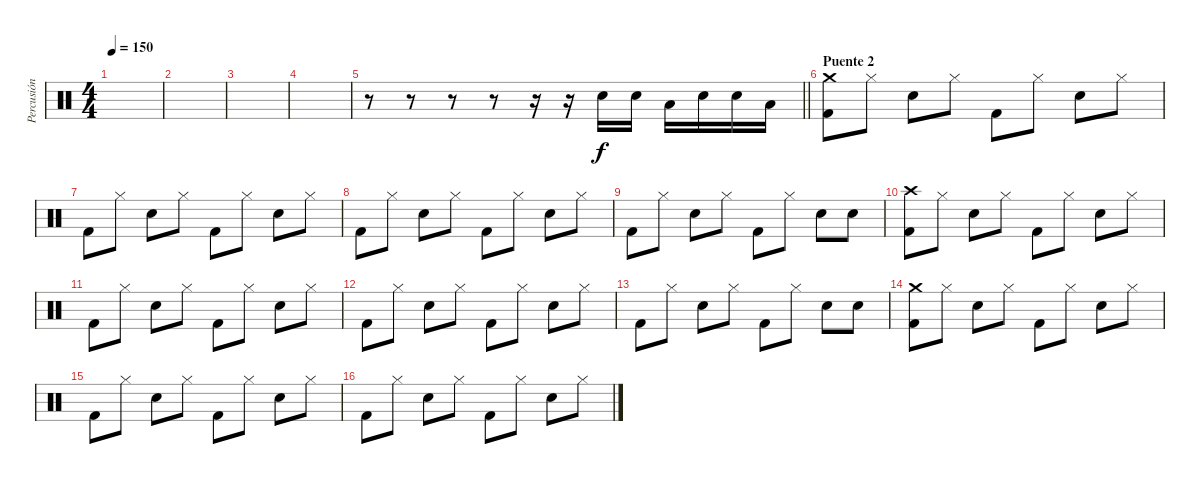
\track ("Percusión" "Percusión") {instrument percussion}
\staff {score}
\articulation defaults
\ts (4 4)
\tempo 150
\clef neutral
\ks c
|
|
|
|
\barLineRight lightlight
r.8 r.8 r.8 r.8 r.16 r.16 "Electric Snare (hit)".16 "Electric Snare (hit)".16 "Low Tom (hit)".16 "Electric Snare (hit)".16 "Electric Snare (hit)".16 "Low Tom (hit)".16 |
\section ("" "Puente 2")
("Crash medium (hit)" "Kick (hit) 2").8 "Hi-Hat (closed)".8 "Electric Snare (hit)".8 "Hi-Hat (closed)".8 "Kick (hit) 2".8 "Hi-Hat (closed)".8 "Electric Snare (hit)".8 "Hi-Hat (closed)".8 |
"Kick (hit) 2".8 "Hi-Hat (closed)".8 "Electric Snare (hit)".8 "Hi-Hat (closed)".8 "Kick (hit) 2".8 "Hi-Hat (closed)".8 "Electric Snare (hit)".8 "Hi-Hat (closed)".8 |
"Kick (hit) 2".8 "Hi-Hat (closed)".8 "Electric Snare (hit)".8 "Hi-Hat (closed)".8 "Kick (hit) 2".8 "Hi-Hat (closed)".8 "Electric Snare (hit)".8 "Hi-Hat (closed)".8 |
"Kick (hit) 2".8 "Hi-Hat (closed)".8 "Electric Snare (hit)".8 "Hi-Hat (closed)".8 "Kick (hit) 2".8 "Hi-Hat (closed)".8 "Electric Snare (hit)".8 "Electric Snare (hit)".8 |
("Crash high (hit)" "Kick (hit) 2").8 "Hi-Hat (closed)".8 "Electric Snare (hit)".8 "Hi-Hat (closed)".8 "Kick (hit) 2".8 "Hi-Hat (closed)".8 "Electric Snare (hit)".8 "Hi-Hat (closed)".8 |
"Kick (hit) 2".8 "Hi-Hat (closed)".8 "Electric Snare (hit)".8 "Hi-Hat (closed)".8 "Kick (hit) 2".8 "Hi-Hat (closed)".8 "Electric Snare (hit)".8 "Hi-Hat (closed)".8 |
"Kick (hit) 2".8 "Hi-Hat (closed)".8 "Electric Snare (hit)".8 "Hi-Hat (closed)".8 "Kick (hit) 2".8 "Hi-Hat (closed)".8 "Electric Snare (hit)".8 "Hi-Hat (closed)".8 |
"Kick (hit) 2".8 "Hi-Hat (closed)".8 "Electric Snare (hit)".8 "Hi-Hat (closed)".8 "Kick (hit) 2".8 "Hi-Hat (closed)".8 "Electric Snare (hit)".8 "Electric Snare (hit)".8 |
("Crash medium (hit)" "Kick (hit) 2").8 "Hi-Hat (closed)".8 "Electric Snare (hit)".8 "Hi-Hat (closed)".8 "Kick (hit) 2".8 "Hi-Hat (closed)".8 "Electric Snare (hit)".8 "Hi-Hat (closed)".8 |
"Kick (hit) 2".8 "Hi-Hat (closed)".8 "Electric Snare (hit)".8 "Hi-Hat (closed)".8 "Kick (hit) 2".8 "Hi-Hat (closed)".8 "Electric Snare (hit)".8 "Hi-Hat (closed)".8 |
"Kick (hit) 2".8 "Hi-Hat (closed)".8 "Electric Snare (hit)".8 "Hi-Hat (closed)".8 "Kick (hit) 2".8 "Hi-Hat (closed)".8 "Electric Snare (hit)".8 "Hi-Hat (closed)".8
